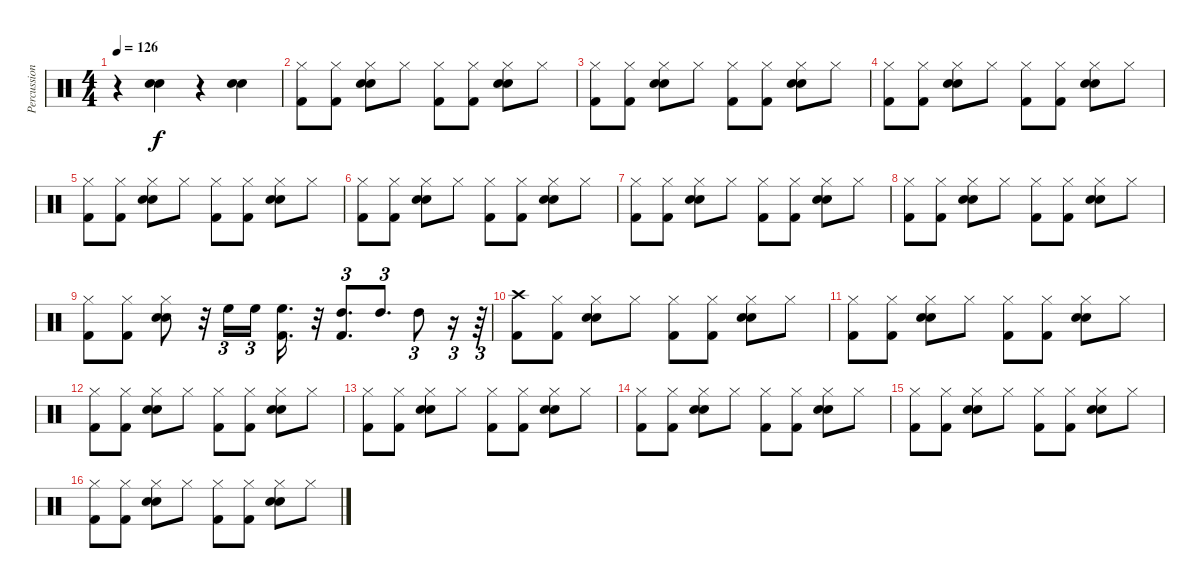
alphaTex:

\track ("Percussion" "Percussion") {instrument percussion}
\staff {score}
\articulation defaults
\ts (4 4)
\tempo 126
\clef neutral
\ks c
r.4{dy f} ("Electric Snare (hit)" "Snare (hit) 2").4 r.4 ("Electric Snare (hit)" "Snare (hit) 2").4 |
("Hi-Hat (closed)" "Kick (hit) 2").8 ("Hi-Hat (closed)" "Kick (hit) 2").8 ("Hi-Hat (closed)" "Snare (hit) 2" "Electric Snare (hit)").8 "Hi-Hat (closed)".8 ("Hi-Hat (closed)" "Kick (hit) 2").8 ("Hi-Hat (closed)" "Kick (hit) 2").8 ("Hi-Hat (closed)" "Snare (hit) 2" "Electric Snare (hit)").8 "Hi-Hat (closed)".8 |
("Hi-Hat (closed)" "Kick (hit) 2").8 ("Hi-Hat (closed)" "Kick (hit) 2").8 ("Hi-Hat (closed)" "Snare (hit) 2" "Electric Snare (hit)").8 "Hi-Hat (closed)".8 ("Hi-Hat (closed)" "Kick (hit) 2").8 ("Hi-Hat (closed)" "Kick (hit) 2").8 ("Hi-Hat (closed)" "Snare (hit) 2" "Electric Snare (hit)").8 "Hi-Hat (closed)".8 |
("Hi-Hat (closed)" "Kick (hit) 2").8 ("Hi-Hat (closed)" "Kick (hit) 2").8 ("Hi-Hat (closed)" "Snare (hit) 2" "Electric Snare (hit)").8 "Hi-Hat (closed)".8 ("Hi-Hat (closed)" "Kick (hit) 2").8 ("Hi-Hat (closed)" "Kick (hit) 2").8 ("Hi-Hat (closed)" "Snare (hit) 2" "Electric Snare (hit)").8 "Hi-Hat (closed)".8 |
("Hi-Hat (closed)" "Kick (hit) 2").8 ("Hi-Hat (closed)" "Kick (hit) 2").8 ("Hi-Hat (closed)" "Snare (hit) 2" "Electric Snare (hit)").8 "Hi-Hat (closed)".8 ("Hi-Hat (closed)" "Kick (hit) 2").8 ("Hi-Hat (closed)" "Kick (hit) 2").8 ("Hi-Hat (closed)" "Snare (hit) 2" "Electric Snare (hit)").8 "Hi-Hat (closed)".8 |
("Hi-Hat (closed)" "Kick (hit) 2").8 ("Hi-Hat (closed)" "Kick (hit) 2").8 ("Hi-Hat (closed)" "Snare (hit) 2" "Electric Snare (hit)").8 "Hi-Hat (closed)".8 ("Hi-Hat (closed)" "Kick (hit) 2").8 ("Hi-Hat (closed)" "Kick (hit) 2").8 ("Hi-Hat (closed)" "Snare (hit) 2" "Electric Snare (hit)").8 "Hi-Hat (closed)".8 |
("Hi-Hat (closed)" "Kick (hit) 2").8 ("Hi-Hat (closed)" "Kick (hit) 2").8 ("Hi-Hat (closed)" "Snare (hit) 2" "Electric Snare (hit)").8 "Hi-Hat (closed)".8 ("Hi-Hat (closed)" "Kick (hit) 2").8 ("Hi-Hat (closed)" "Kick (hit) 2").8 ("Hi-Hat (closed)" "Snare (hit) 2" "Electric Snare (hit)").8 "Hi-Hat (closed)".8 |
("Hi-Hat (closed)" "Kick (hit) 2").8 ("Hi-Hat (closed)" "Kick (hit) 2").8 ("Hi-Hat (closed)" "Snare (hit) 2" "Electric Snare (hit)").8 "Hi-Hat (closed)".8 ("Hi-Hat (closed)" "Kick (hit) 2").8 ("Hi-Hat (closed)" "Kick (hit) 2").8 ("Hi-Hat (closed)" "Snare (hit) 2" "Electric Snare (hit)").8 "Hi-Hat (closed)".8 |
("Hi-Hat (closed)" "Kick (hit) 2").8 ("Hi-Hat (closed)" "Kick (hit) 2").8 ("Hi-Hat (closed)" "Snare (hit) 2" "Electric Snare (hit)").8 r.32 "High Floor Tom (hit)".16{tu (3 2)} "High Floor Tom (hit)".16{tu (3 2) beam splitsecondary} ("High Floor Tom (hit)" "Kick (hit) 2").16{d} r.32 ("High Tom (hit)" "Kick (hit) 2").8{d tu (3 2)} "High Tom (hit)".8{d tu (3 2)} "High Tom (hit)".8{tu (3 2)} r.16{tu (3 2)} r.64{tu (3 2)} |
("Crash high (hit)" "Kick (hit) 2").8 ("Hi-Hat (closed)" "Kick (hit) 2").8 ("Hi-Hat (closed)" "Snare (hit) 2" "Electric Snare (hit)").8 "Hi-Hat (closed)".8 ("Hi-Hat (closed)" "Kick (hit) 2").8 ("Hi-Hat (closed)" "Kick (hit) 2").8 ("Hi-Hat (closed)" "Snare (hit) 2" "Electric Snare (hit)").8 "Hi-Hat (closed)".8 |
("Hi-Hat (closed)" "Kick (hit) 2").8 ("Hi-Hat (closed)" "Kick (hit) 2").8 ("Hi-Hat (closed)" "Snare (hit) 2" "Electric Snare (hit)").8 "Hi-Hat (closed)".8 ("Hi-Hat (closed)" "Kick (hit) 2").8 ("Hi-Hat (closed)" "Kick (hit) 2").8 ("Hi-Hat (closed)" "Snare (hit) 2" "Electric Snare (hit)").8 "Hi-Hat (closed)".8 |
("Hi-Hat (closed)" "Kick (hit) 2").8 ("Hi-Hat (closed)" "Kick (hit) 2").8 ("Hi-Hat (closed)" "Snare (hit) 2" "Electric Snare (hit)").8 "Hi-Hat (closed)".8 ("Hi-Hat (closed)" "Kick (hit) 2").8 ("Hi-Hat (closed)" "Kick (hit) 2").8 ("Hi-Hat (closed)" "Snare (hit) 2" "Electric Snare (hit)").8 "Hi-Hat (closed)".8 |
("Hi-Hat (closed)" "Kick (hit) 2").8 ("Hi-Hat (closed)" "Kick (hit) 2").8 ("Hi-Hat (closed)" "Snare (hit) 2" "Electric Snare (hit)").8 "Hi-Hat (closed)".8 ("Hi-Hat (closed)" "Kick (hit) 2").8 ("Hi-Hat (closed)" "Kick (hit) 2").8 ("Hi-Hat (closed)" "Snare (hit) 2" "Electric Snare (hit)").8 "Hi-Hat (closed)".8 |
("Hi-Hat (closed)" "Kick (hit) 2").8 ("Hi-Hat (closed)" "Kick (hit) 2").8 ("Hi-Hat (closed)" "Snare (hit) 2" "Electric Snare (hit)").8 "Hi-Hat (closed)".8 ("Hi-Hat (closed)" "Kick (hit) 2").8 ("Hi-Hat (closed)" "Kick (hit) 2").8 ("Hi-Hat (closed)" "Snare (hit) 2" "Electric Snare (hit)").8 "Hi-Hat (closed)".8 |
("Hi-Hat (closed)" "Kick (hit) 2").8 ("Hi-Hat (closed)" "Kick (hit) 2").8 ("Hi-Hat (closed)" "Snare (hit) 2" "Electric Snare (hit)").8 "Hi-Hat (closed)".8 ("Hi-Hat (closed)" "Kick (hit) 2").8 ("Hi-Hat (closed)" "Kick (hit) 2").8 ("Hi-Hat (closed)" "Snare (hit) 2" "Electric Snare (hit)").8 "Hi-Hat (closed)".8 |
("Hi-Hat (closed)" "Kick (hit) 2").8 ("Hi-Hat (closed)" "Kick (hit) 2").8 ("Hi-Hat (closed)" "Snare (hit) 2" "Electric Snare (hit)").8 "Hi-Hat (closed)".8 ("Hi-Hat (closed)" "Kick (hit) 2").8 ("Hi-Hat (closed)" "Kick (hit) 2").8 ("Hi-Hat (closed)" "Snare (hit) 2" "Electric Snare (hit)").8 "Hi-Hat (closed)".8
